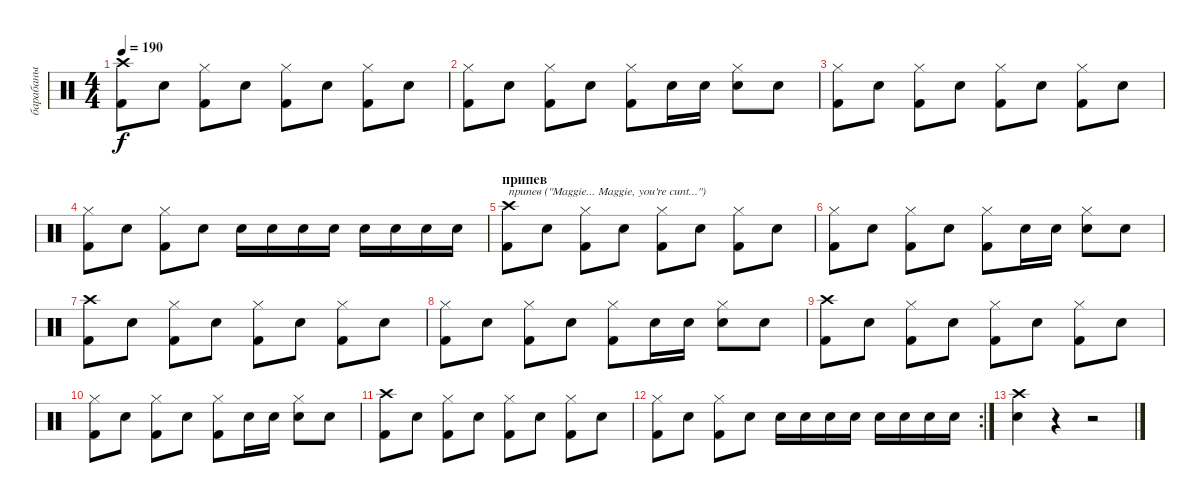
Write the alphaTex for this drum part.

\track ("барабаны" "барабаны") {instrument percussion}
\staff {score}
\articulation defaults
\ts (4 4)
\tempo 190
\clef neutral
\ks c
("Crash high (hit)" "Kick (hit) 2").8{dy f} "Snare (hit) 2".8 ("Hi-Hat (closed)" "Kick (hit) 2").8 "Snare (hit) 2".8 ("Hi-Hat (closed)" "Kick (hit) 2").8 "Snare (hit) 2".8 ("Hi-Hat (closed)" "Kick (hit) 2").8 "Snare (hit) 2".8 |
("Hi-Hat (closed)" "Kick (hit) 2").8 "Snare (hit) 2".8 ("Hi-Hat (closed)" "Kick (hit) 2").8 "Snare (hit) 2".8 ("Hi-Hat (closed)" "Kick (hit) 2").8 "Snare (hit) 2".16 "Snare (hit) 2".16 ("Hi-Hat (closed)" "Snare (hit) 2").8 "Snare (hit) 2".8 |
("Hi-Hat (closed)" "Kick (hit) 2").8 "Snare (hit) 2".8 ("Hi-Hat (closed)" "Kick (hit) 2").8 "Snare (hit) 2".8 ("Hi-Hat (closed)" "Kick (hit) 2").8 "Snare (hit) 2".8 ("Hi-Hat (closed)" "Kick (hit) 2").8 "Snare (hit) 2".8 |
("Hi-Hat (closed)" "Kick (hit) 2").8 "Snare (hit) 2".8 ("Hi-Hat (closed)" "Kick (hit) 2").8 "Snare (hit) 2".8 "Snare (hit) 2".16 "Snare (hit) 2".16 "Snare (hit) 2".16 "Snare (hit) 2".16 "Snare (hit) 2".16 "Electric Snare (hit)".16 "Electric Snare (hit)".16 "Electric Snare (hit)".16 |
\section ("" "припев")
("Crash high (hit)" "Kick (hit) 2").8{txt "припев (\"Maggie... Maggie, you're cunt...\")"} "Snare (hit) 2".8 ("Hi-Hat (closed)" "Kick (hit) 2").8 "Snare (hit) 2".8 ("Hi-Hat (closed)" "Kick (hit) 2").8 "Snare (hit) 2".8 ("Hi-Hat (closed)" "Kick (hit) 2").8 "Snare (hit) 2".8 |
("Hi-Hat (closed)" "Kick (hit) 2").8 "Snare (hit) 2".8 ("Hi-Hat (closed)" "Kick (hit) 2").8 "Snare (hit) 2".8 ("Hi-Hat (closed)" "Kick (hit) 2").8 "Snare (hit) 2".16 "Snare (hit) 2".16 ("Hi-Hat (closed)" "Snare (hit) 2").8 "Snare (hit) 2".8 |
("Crash high (hit)" "Kick (hit) 2").8 "Snare (hit) 2".8 ("Hi-Hat (closed)" "Kick (hit) 2").8 "Snare (hit) 2".8 ("Hi-Hat (closed)" "Kick (hit) 2").8 "Snare (hit) 2".8 ("Hi-Hat (closed)" "Kick (hit) 2").8 "Snare (hit) 2".8 |
("Hi-Hat (closed)" "Kick (hit) 2").8 "Snare (hit) 2".8 ("Hi-Hat (closed)" "Kick (hit) 2").8 "Snare (hit) 2".8 ("Hi-Hat (closed)" "Kick (hit) 2").8 "Snare (hit) 2".16 "Snare (hit) 2".16 ("Hi-Hat (closed)" "Snare (hit) 2").8 "Snare (hit) 2".8 |
("Crash high (hit)" "Kick (hit) 2").8 "Snare (hit) 2".8 ("Hi-Hat (closed)" "Kick (hit) 2").8 "Snare (hit) 2".8 ("Hi-Hat (closed)" "Kick (hit) 2").8 "Snare (hit) 2".8 ("Hi-Hat (closed)" "Kick (hit) 2").8 "Snare (hit) 2".8 |
("Hi-Hat (closed)" "Kick (hit) 2").8 "Snare (hit) 2".8 ("Hi-Hat (closed)" "Kick (hit) 2").8 "Snare (hit) 2".8 ("Hi-Hat (closed)" "Kick (hit) 2").8 "Snare (hit) 2".16 "Snare (hit) 2".16 ("Hi-Hat (closed)" "Snare (hit) 2").8 "Snare (hit) 2".8 |
("Crash high (hit)" "Kick (hit) 2").8 "Snare (hit) 2".8 ("Hi-Hat (closed)" "Kick (hit) 2").8 "Snare (hit) 2".8 ("Hi-Hat (closed)" "Kick (hit) 2").8 "Snare (hit) 2".8 ("Hi-Hat (closed)" "Kick (hit) 2").8 "Snare (hit) 2".8 |
\rc 2
("Hi-Hat (closed)" "Kick (hit) 2").8 "Snare (hit) 2".8 ("Hi-Hat (closed)" "Kick (hit) 2").8 "Snare (hit) 2".8 "Snare (hit) 2".16 "Snare (hit) 2".16 "Snare (hit) 2".16 "Snare (hit) 2".16 "Snare (hit) 2".16 "Electric Snare (hit)".16 "Electric Snare (hit)".16 "Electric Snare (hit)".16 |
("Crash high (hit)" "Snare (hit) 2").4 r.4 r.2
